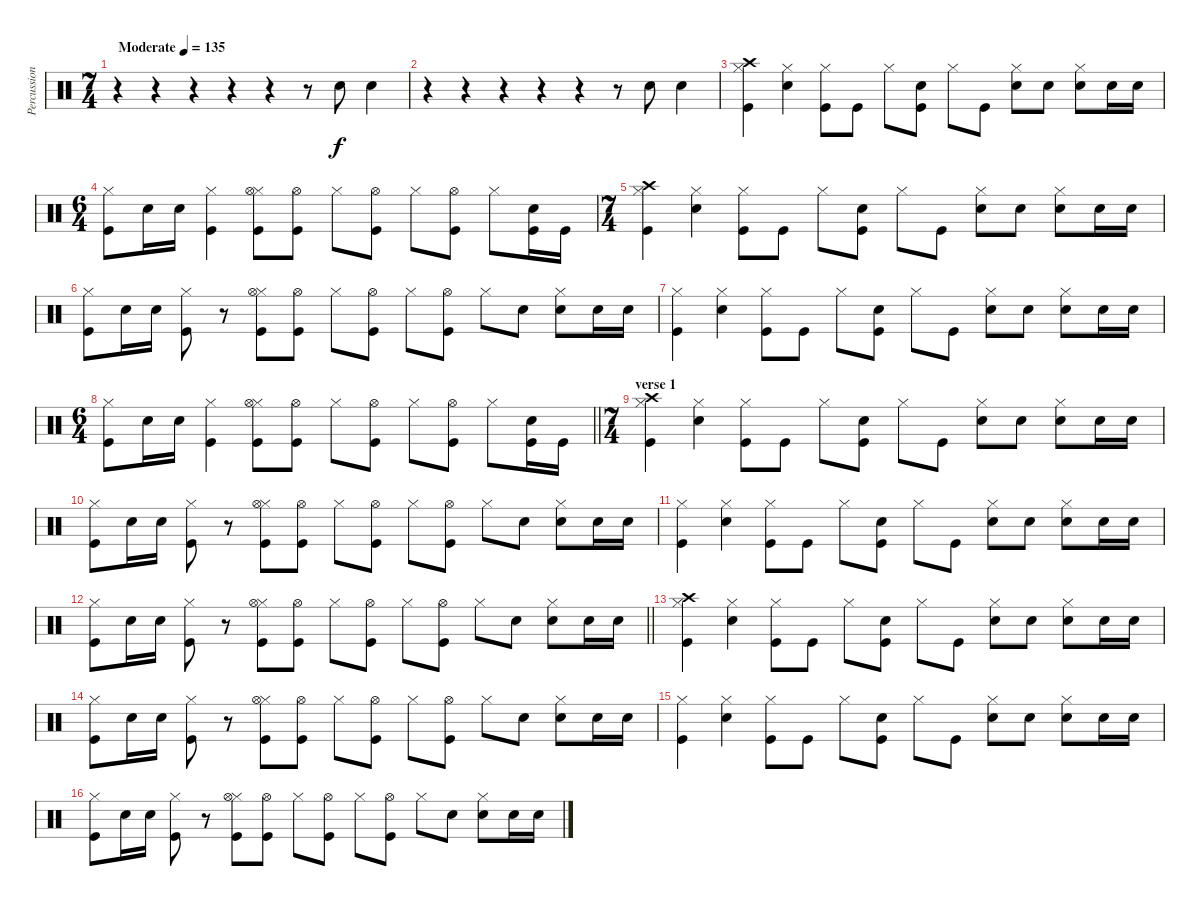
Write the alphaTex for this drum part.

\track ("Percussion" "Percussion") {instrument percussion}
\staff {score}
\articulation defaults
\ts (7 4)
\tempo (135 "Moderate")
\clef neutral
\ks c
r.4{dy f} r.4 r.4 r.4 r.4 r.8 "Hand Clap (hit)".8 "Hand Clap (hit)".4 |
r.4 r.4 r.4 r.4 r.4 r.8 "Hand Clap (hit)".8 "Hand Clap (hit)".4 |
("Crash high (hit)" "Hi-Hat (closed)" "Kick (hit)").4 ("Hi-Hat (closed)" "Electric Snare (hit)").4 ("Hi-Hat (closed)" "Kick (hit)").8 "Kick (hit)".8 "Hi-Hat (closed)".8 ("Electric Snare (hit)" "Kick (hit)").8 "Hi-Hat (closed)".8 "Kick (hit)".8 ("Hi-Hat (closed)" "Electric Snare (hit)").8 "Hand Clap (hit)".8 ("Hi-Hat (closed)" "Hand Clap (hit)").8 "Electric Snare (hit)".16 "Electric Snare (hit)".16 |
\ts (6 4)
("Hi-Hat (closed)" "Kick (hit)").8 "Electric Snare (hit)".16 "Electric Snare (hit)".16 ("Hi-Hat (closed)" "Kick (hit)").4 ("Hi-Hat (closed)" "Hi-Hat (open)" "Kick (hit)").8 ("Hi-Hat (open)" "Kick (hit)").8 "Hi-Hat (closed)".8 ("Hi-Hat (open)" "Kick (hit)").8 "Hi-Hat (closed)".8 ("Hi-Hat (open)" "Kick (hit)").8 "Hi-Hat (closed)".8 ("Hand Clap (hit)" "Kick (hit)").16 "Kick (hit)".16 |
\ts (7 4)
("Crash high (hit)" "Hi-Hat (closed)" "Kick (hit)").4 ("Hi-Hat (closed)" "Electric Snare (hit)").4 ("Hi-Hat (closed)" "Kick (hit)").8 "Kick (hit)".8 "Hi-Hat (closed)".8 ("Electric Snare (hit)" "Kick (hit)").8 "Hi-Hat (closed)".8 "Kick (hit)".8 ("Hi-Hat (closed)" "Electric Snare (hit)").8 "Hand Clap (hit)".8 ("Hi-Hat (closed)" "Hand Clap (hit)").8 "Electric Snare (hit)".16 "Electric Snare (hit)".16 |
("Hi-Hat (closed)" "Kick (hit)").8 "Electric Snare (hit)".16 "Electric Snare (hit)".16 ("Hi-Hat (closed)" "Kick (hit)").8 r.8 ("Hi-Hat (closed)" "Hi-Hat (open)" "Kick (hit)").8 ("Hi-Hat (open)" "Kick (hit)").8 "Hi-Hat (closed)".8 ("Hi-Hat (open)" "Kick (hit)").8 "Hi-Hat (closed)".8 ("Hi-Hat (open)" "Kick (hit)").8 "Hi-Hat (closed)".8 "Hand Clap (hit)".8 ("Hi-Hat (closed)" "Hand Clap (hit)").8 "Electric Snare (hit)".16 "Electric Snare (hit)".16 |
("Hi-Hat (closed)" "Kick (hit)").4 ("Hi-Hat (closed)" "Electric Snare (hit)").4 ("Hi-Hat (closed)" "Kick (hit)").8 "Kick (hit)".8 "Hi-Hat (closed)".8 ("Electric Snare (hit)" "Kick (hit)").8 "Hi-Hat (closed)".8 "Kick (hit)".8 ("Hi-Hat (closed)" "Electric Snare (hit)").8 "Hand Clap (hit)".8 ("Hi-Hat (closed)" "Hand Clap (hit)").8 "Electric Snare (hit)".16 "Electric Snare (hit)".16 |
\ts (6 4)
\barLineRight lightlight
("Hi-Hat (closed)" "Kick (hit)").8 "Electric Snare (hit)".16 "Electric Snare (hit)".16 ("Hi-Hat (closed)" "Kick (hit)").4 ("Hi-Hat (closed)" "Hi-Hat (open)" "Kick (hit)").8 ("Hi-Hat (open)" "Kick (hit)").8 "Hi-Hat (closed)".8 ("Hi-Hat (open)" "Kick (hit)").8 "Hi-Hat (closed)".8 ("Hi-Hat (open)" "Kick (hit)").8 "Hi-Hat (closed)".8 ("Hand Clap (hit)" "Kick (hit)").16 "Kick (hit)".16 |
\ts (7 4)
\section ("" "verse 1")
("Crash high (hit)" "Hi-Hat (closed)" "Kick (hit)").4 ("Hi-Hat (closed)" "Electric Snare (hit)").4 ("Hi-Hat (closed)" "Kick (hit)").8 "Kick (hit)".8 "Hi-Hat (closed)".8 ("Electric Snare (hit)" "Kick (hit)").8 "Hi-Hat (closed)".8 "Kick (hit)".8 ("Hi-Hat (closed)" "Electric Snare (hit)").8 "Hand Clap (hit)".8 ("Hi-Hat (closed)" "Hand Clap (hit)").8 "Electric Snare (hit)".16 "Electric Snare (hit)".16 |
("Hi-Hat (closed)" "Kick (hit)").8 "Electric Snare (hit)".16 "Electric Snare (hit)".16 ("Hi-Hat (closed)" "Kick (hit)").8 r.8 ("Hi-Hat (closed)" "Hi-Hat (open)" "Kick (hit)").8 ("Hi-Hat (open)" "Kick (hit)").8 "Hi-Hat (closed)".8 ("Hi-Hat (open)" "Kick (hit)").8 "Hi-Hat (closed)".8 ("Hi-Hat (open)" "Kick (hit)").8 "Hi-Hat (closed)".8 "Hand Clap (hit)".8 ("Hi-Hat (closed)" "Hand Clap (hit)").8 "Electric Snare (hit)".16 "Electric Snare (hit)".16 |
("Hi-Hat (closed)" "Kick (hit)").4 ("Hi-Hat (closed)" "Electric Snare (hit)").4 ("Hi-Hat (closed)" "Kick (hit)").8 "Kick (hit)".8 "Hi-Hat (closed)".8 ("Electric Snare (hit)" "Kick (hit)").8 "Hi-Hat (closed)".8 "Kick (hit)".8 ("Hi-Hat (closed)" "Electric Snare (hit)").8 "Hand Clap (hit)".8 ("Hi-Hat (closed)" "Hand Clap (hit)").8 "Electric Snare (hit)".16 "Electric Snare (hit)".16 |
\barLineRight lightlight
("Hi-Hat (closed)" "Kick (hit)").8 "Electric Snare (hit)".16 "Electric Snare (hit)".16 ("Hi-Hat (closed)" "Kick (hit)").8 r.8 ("Hi-Hat (closed)" "Hi-Hat (open)" "Kick (hit)").8 ("Hi-Hat (open)" "Kick (hit)").8 "Hi-Hat (closed)".8 ("Hi-Hat (open)" "Kick (hit)").8 "Hi-Hat (closed)".8 ("Hi-Hat (open)" "Kick (hit)").8 "Hi-Hat (closed)".8 "Hand Clap (hit)".8 ("Hi-Hat (closed)" "Hand Clap (hit)").8 "Electric Snare (hit)".16 "Electric Snare (hit)".16 |
("Crash high (hit)" "Hi-Hat (closed)" "Kick (hit)").4 ("Hi-Hat (closed)" "Electric Snare (hit)").4 ("Hi-Hat (closed)" "Kick (hit)").8 "Kick (hit)".8 "Hi-Hat (closed)".8 ("Electric Snare (hit)" "Kick (hit)").8 "Hi-Hat (closed)".8 "Kick (hit)".8 ("Hi-Hat (closed)" "Electric Snare (hit)").8 "Hand Clap (hit)".8 ("Hi-Hat (closed)" "Hand Clap (hit)").8 "Electric Snare (hit)".16 "Electric Snare (hit)".16 |
("Hi-Hat (closed)" "Kick (hit)").8 "Electric Snare (hit)".16 "Electric Snare (hit)".16 ("Hi-Hat (closed)" "Kick (hit)").8 r.8 ("Hi-Hat (closed)" "Hi-Hat (open)" "Kick (hit)").8 ("Hi-Hat (open)" "Kick (hit)").8 "Hi-Hat (closed)".8 ("Hi-Hat (open)" "Kick (hit)").8 "Hi-Hat (closed)".8 ("Hi-Hat (open)" "Kick (hit)").8 "Hi-Hat (closed)".8 "Hand Clap (hit)".8 ("Hi-Hat (closed)" "Hand Clap (hit)").8 "Electric Snare (hit)".16 "Electric Snare (hit)".16 |
("Hi-Hat (closed)" "Kick (hit)").4 ("Hi-Hat (closed)" "Electric Snare (hit)").4 ("Hi-Hat (closed)" "Kick (hit)").8 "Kick (hit)".8 "Hi-Hat (closed)".8 ("Electric Snare (hit)" "Kick (hit)").8 "Hi-Hat (closed)".8 "Kick (hit)".8 ("Hi-Hat (closed)" "Electric Snare (hit)").8 "Hand Clap (hit)".8 ("Hi-Hat (closed)" "Hand Clap (hit)").8 "Electric Snare (hit)".16 "Electric Snare (hit)".16 |
("Hi-Hat (closed)" "Kick (hit)").8 "Electric Snare (hit)".16 "Electric Snare (hit)".16 ("Hi-Hat (closed)" "Kick (hit)").8 r.8 ("Hi-Hat (closed)" "Hi-Hat (open)" "Kick (hit)").8 ("Hi-Hat (open)" "Kick (hit)").8 "Hi-Hat (closed)".8 ("Hi-Hat (open)" "Kick (hit)").8 "Hi-Hat (closed)".8 ("Hi-Hat (open)" "Kick (hit)").8 "Hi-Hat (closed)".8 "Hand Clap (hit)".8 ("Hi-Hat (closed)" "Hand Clap (hit)").8 "Electric Snare (hit)".16 "Electric Snare (hit)".16
